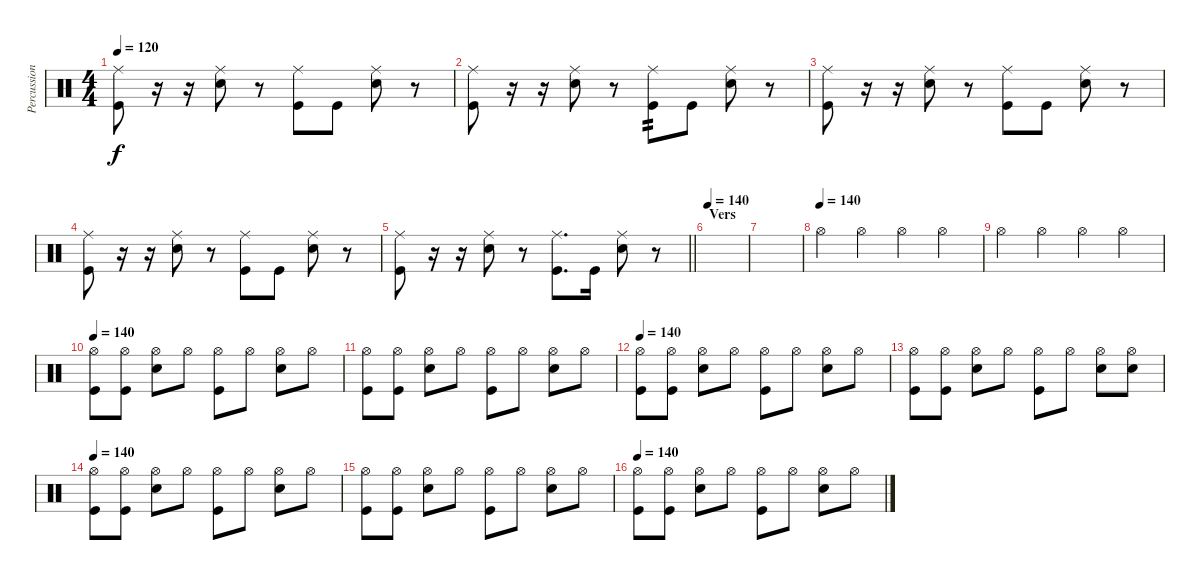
\track ("Percussion" "Percussion") {instrument percussion}
\staff {score}
\articulation defaults
\ts (4 4)
\tempo 120
\clef neutral
\ks c
("Ride (middle)" "Kick (hit)").8{dy f} r.16 r.16 ("Ride (middle)" "Electric Snare (hit)").8 r.8 ("Ride (middle)" "Kick (hit)").8 "Kick (hit)".8 ("Ride (middle)" "Electric Snare (hit)").8 r.8 |
("Ride (middle)" "Kick (hit)").8 r.16 r.16 ("Ride (middle)" "Electric Snare (hit)").8 r.8 ("Ride (middle)" "Kick (hit)").8{tp 2} "Kick (hit)".8 ("Ride (middle)" "Electric Snare (hit)").8 r.8 |
("Ride (middle)" "Kick (hit)").8 r.16 r.16 ("Ride (middle)" "Electric Snare (hit)").8 r.8 ("Ride (middle)" "Kick (hit)").8 "Kick (hit)".8 ("Ride (middle)" "Electric Snare (hit)").8 r.8 |
("Ride (middle)" "Kick (hit)").8 r.16 r.16 ("Ride (middle)" "Electric Snare (hit)").8 r.8 ("Ride (middle)" "Kick (hit)").8 "Kick (hit)".8 ("Ride (middle)" "Electric Snare (hit)").8 r.8 |
\barLineRight lightlight
("Ride (middle)" "Kick (hit)").8 r.16 r.16 ("Ride (middle)" "Electric Snare (hit)").8 r.8 ("Ride (middle)" "Kick (hit)").8{d} "Kick (hit)".16 ("Ride (middle)" "Electric Snare (hit)").8 r.8 |
\section ("" "Vers")
\tempo 140
|
|
\tempo (140)
"Hi-Hat (open)".4 "Hi-Hat (open)".4 "Hi-Hat (open)".4 "Hi-Hat (open)".4 |
"Hi-Hat (open)".4 "Hi-Hat (open)".4 "Hi-Hat (open)".4 "Hi-Hat (open)".4 |
\tempo 140
("Hi-Hat (open)" "Kick (hit)").8 ("Hi-Hat (open)" "Kick (hit)").8 ("Hi-Hat (open)" "Electric Snare (hit)").8 "Hi-Hat (open)".8 ("Hi-Hat (open)" "Kick (hit)").8 "Hi-Hat (open)".8 ("Hi-Hat (open)" "Electric Snare (hit)").8 "Hi-Hat (open)".8 |
("Hi-Hat (open)" "Kick (hit)").8 ("Hi-Hat (open)" "Kick (hit)").8 ("Hi-Hat (open)" "Electric Snare (hit)").8 "Hi-Hat (open)".8 ("Hi-Hat (open)" "Kick (hit)").8 "Hi-Hat (open)".8 ("Hi-Hat (open)" "Electric Snare (hit)").8 "Hi-Hat (open)".8 |
\tempo 140
("Hi-Hat (open)" "Kick (hit)").8 ("Hi-Hat (open)" "Kick (hit)").8 ("Hi-Hat (open)" "Electric Snare (hit)").8 "Hi-Hat (open)".8 ("Hi-Hat (open)" "Kick (hit)").8 "Hi-Hat (open)".8 ("Hi-Hat (open)" "Electric Snare (hit)").8 "Hi-Hat (open)".8 |
("Hi-Hat (open)" "Kick (hit)").8 ("Hi-Hat (open)" "Kick (hit)").8 ("Hi-Hat (open)" "Electric Snare (hit)").8 "Hi-Hat (open)".8 ("Hi-Hat (open)" "Kick (hit)").8 "Hi-Hat (open)".8 ("Hi-Hat (open)" "Electric Snare (hit)").8 ("Hi-Hat (open)" "Electric Snare (hit)").8 |
\tempo 140
("Hi-Hat (open)" "Kick (hit)").8 ("Hi-Hat (open)" "Kick (hit)").8 ("Hi-Hat (open)" "Electric Snare (hit)").8 "Hi-Hat (open)".8 ("Hi-Hat (open)" "Kick (hit)").8 "Hi-Hat (open)".8 ("Hi-Hat (open)" "Electric Snare (hit)").8 "Hi-Hat (open)".8 |
("Hi-Hat (open)" "Kick (hit)").8 ("Hi-Hat (open)" "Kick (hit)").8 ("Hi-Hat (open)" "Electric Snare (hit)").8 "Hi-Hat (open)".8 ("Hi-Hat (open)" "Kick (hit)").8 "Hi-Hat (open)".8 ("Hi-Hat (open)" "Electric Snare (hit)").8 "Hi-Hat (open)".8 |
\tempo 140
("Hi-Hat (open)" "Kick (hit)").8 ("Hi-Hat (open)" "Kick (hit)").8 ("Hi-Hat (open)" "Electric Snare (hit)").8 "Hi-Hat (open)".8 ("Hi-Hat (open)" "Kick (hit)").8 "Hi-Hat (open)".8 ("Hi-Hat (open)" "Electric Snare (hit)").8 "Hi-Hat (open)".8
